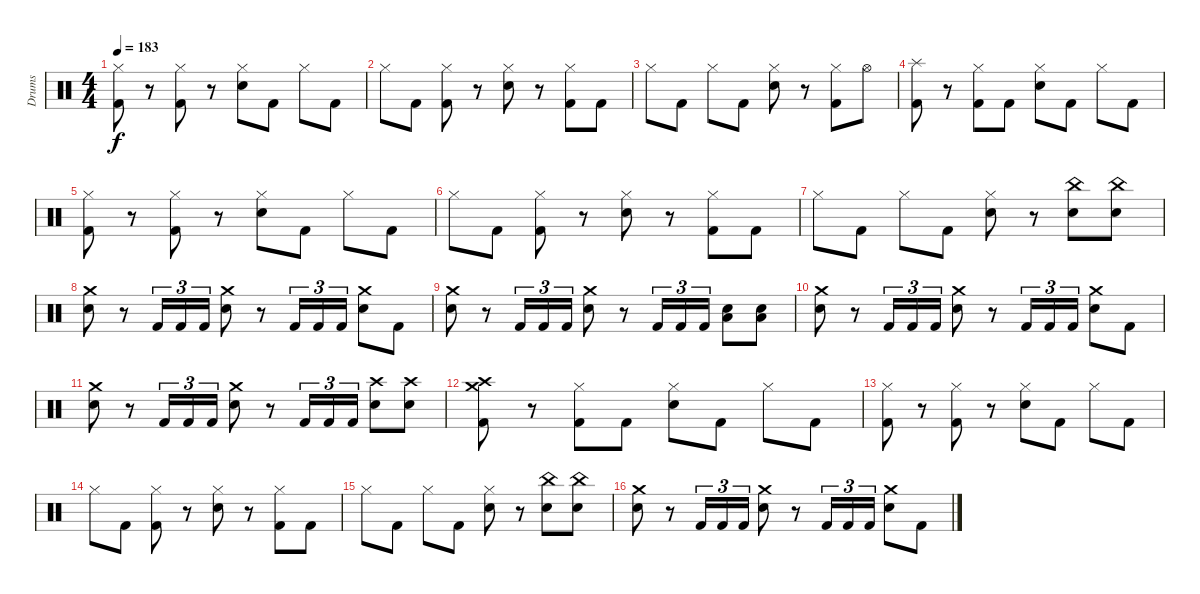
\track ("Drums" "Drums") {instrument percussion}
\staff {score}
\articulation defaults
\ts (4 4)
\tempo 183
\clef neutral
\ks c
("Hi-Hat (closed)" "Kick (hit) 2").8{dy f} r.8 ("Hi-Hat (closed)" "Kick (hit) 2").8 r.8 ("Hi-Hat (closed)" "Electric Snare (hit)").8 "Kick (hit) 2".8 "Hi-Hat (closed)".8 "Kick (hit) 2".8 |
"Hi-Hat (closed)".8 "Kick (hit) 2".8 ("Hi-Hat (closed)" "Kick (hit) 2").8 r.8 ("Hi-Hat (closed)" "Electric Snare (hit)").8 r.8 ("Hi-Hat (closed)" "Kick (hit) 2").8 "Kick (hit) 2".8 |
"Hi-Hat (closed)".8 "Kick (hit) 2".8 "Hi-Hat (closed)".8 "Kick (hit) 2".8 ("Hi-Hat (closed)" "Electric Snare (hit)").8 r.8 ("Hi-Hat (closed)" "Kick (hit) 2").8 "Hi-Hat (open)".8 |
("Splash (hit)" "Kick (hit) 2").8 r.8 ("Hi-Hat (closed)" "Kick (hit) 2").8 "Kick (hit) 2".8 ("Hi-Hat (closed)" "Electric Snare (hit)").8 "Kick (hit) 2".8 "Hi-Hat (closed)".8 "Kick (hit) 2".8 |
("Hi-Hat (closed)" "Kick (hit) 2").8 r.8 ("Hi-Hat (closed)" "Kick (hit) 2").8 r.8 ("Hi-Hat (closed)" "Electric Snare (hit)").8 "Kick (hit) 2".8 "Hi-Hat (closed)".8 "Kick (hit) 2".8 |
"Hi-Hat (closed)".8 "Kick (hit) 2".8 ("Hi-Hat (closed)" "Kick (hit) 2").8 r.8 ("Hi-Hat (closed)" "Electric Snare (hit)").8 r.8 ("Hi-Hat (closed)" "Kick (hit) 2").8 "Kick (hit) 2".8 |
"Hi-Hat (closed)".8 "Kick (hit) 2".8 "Hi-Hat (closed)".8 "Kick (hit) 2".8 ("Hi-Hat (closed)" "Electric Snare (hit)").8 r.8 ("China (hit)" "Electric Snare (hit)").8 ("China (hit)" "Electric Snare (hit)").8 |
("Crash medium (hit)" "Electric Snare (hit)").8 r.8 "Kick (hit) 2".16{tu (3 2)} "Kick (hit) 2".16{tu (3 2)} "Kick (hit) 2".16{tu (3 2)} ("Crash medium (hit)" "Electric Snare (hit)").8 r.8 "Kick (hit) 2".16{tu (3 2)} "Kick (hit) 2".16{tu (3 2)} "Kick (hit) 2".16{tu (3 2)} ("Crash medium (hit)" "Electric Snare (hit)").8 "Kick (hit) 2".8 |
("Crash medium (hit)" "Electric Snare (hit)").8 r.8 "Kick (hit) 2".16{tu (3 2)} "Kick (hit) 2".16{tu (3 2)} "Kick (hit) 2".16{tu (3 2)} ("Crash medium (hit)" "Electric Snare (hit)").8 r.8 "Kick (hit) 2".16{tu (3 2)} "Kick (hit) 2".16{tu (3 2)} "Kick (hit) 2".16{tu (3 2)} ("Electric Snare (hit)" "Low Floor Tom (hit)").8 ("Electric Snare (hit)" "Low Floor Tom (hit)").8 |
("Crash medium (hit)" "Electric Snare (hit)").8 r.8 "Kick (hit) 2".16{tu (3 2)} "Kick (hit) 2".16{tu (3 2)} "Kick (hit) 2".16{tu (3 2)} ("Crash medium (hit)" "Electric Snare (hit)").8 r.8 "Kick (hit) 2".16{tu (3 2)} "Kick (hit) 2".16{tu (3 2)} "Kick (hit) 2".16{tu (3 2)} ("Crash medium (hit)" "Electric Snare (hit)").8 "Kick (hit) 2".8 |
("Crash medium (hit)" "Electric Snare (hit)").8 r.8 "Kick (hit) 2".16{tu (3 2)} "Kick (hit) 2".16{tu (3 2)} "Kick (hit) 2".16{tu (3 2)} ("Crash medium (hit)" "Electric Snare (hit)").8 r.8 "Kick (hit) 2".16{tu (3 2)} "Kick (hit) 2".16{tu (3 2)} "Kick (hit) 2".16{tu (3 2)} ("Crash high (hit)" "Electric Snare (hit)").8 ("Crash high (hit)" "Electric Snare (hit)").8 |
("Crash high (hit)" "Crash medium (hit)" "Kick (hit) 2").8 r.8 ("Hi-Hat (closed)" "Kick (hit) 2").8 "Kick (hit) 2".8 ("Hi-Hat (closed)" "Electric Snare (hit)").8 "Kick (hit) 2".8 "Hi-Hat (closed)".8 "Kick (hit) 2".8 |
("Hi-Hat (closed)" "Kick (hit) 2").8 r.8 ("Hi-Hat (closed)" "Kick (hit) 2").8 r.8 ("Hi-Hat (closed)" "Electric Snare (hit)").8 "Kick (hit) 2".8 "Hi-Hat (closed)".8 "Kick (hit) 2".8 |
"Hi-Hat (closed)".8 "Kick (hit) 2".8 ("Hi-Hat (closed)" "Kick (hit) 2").8 r.8 ("Hi-Hat (closed)" "Electric Snare (hit)").8 r.8 ("Hi-Hat (closed)" "Kick (hit) 2").8 "Kick (hit) 2".8 |
"Hi-Hat (closed)".8 "Kick (hit) 2".8 "Hi-Hat (closed)".8 "Kick (hit) 2".8 ("Hi-Hat (closed)" "Electric Snare (hit)").8 r.8 ("China (hit)" "Electric Snare (hit)").8 ("China (hit)" "Electric Snare (hit)").8 |
("Crash medium (hit)" "Electric Snare (hit)").8 r.8 "Kick (hit) 2".16{tu (3 2)} "Kick (hit) 2".16{tu (3 2)} "Kick (hit) 2".16{tu (3 2)} ("Crash medium (hit)" "Electric Snare (hit)").8 r.8 "Kick (hit) 2".16{tu (3 2)} "Kick (hit) 2".16{tu (3 2)} "Kick (hit) 2".16{tu (3 2)} ("Crash medium (hit)" "Electric Snare (hit)").8 "Kick (hit) 2".8
